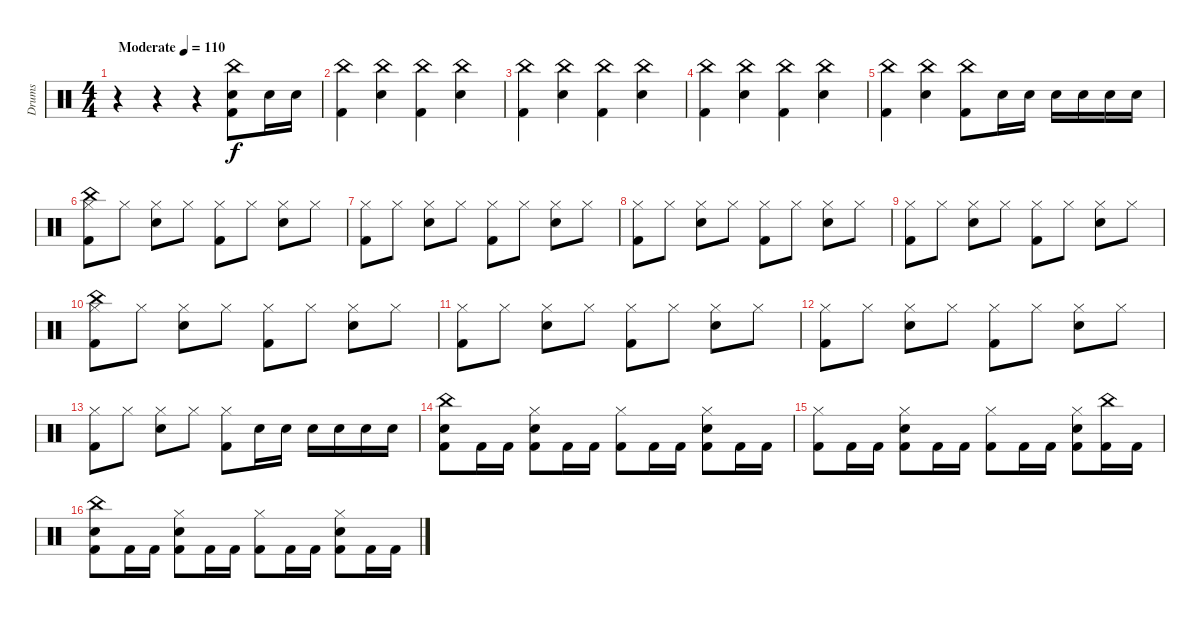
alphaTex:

\track ("Drums" "Drums") {instrument percussion}
\staff {score}
\articulation defaults
\ts (4 4)
\tempo (110 "Moderate")
\clef neutral
\ks c
r.4{dy f} r.4 r.4 ("China (hit)" "Snare (hit) 2" "Kick (hit) 2").8 "Snare (hit) 2".16 "Snare (hit) 2".16 |
("China (hit)" "Kick (hit) 2").4 ("China (hit)" "Snare (hit) 2").4 ("China (hit)" "Kick (hit) 2").4 ("China (hit)" "Snare (hit) 2").4 |
("China (hit)" "Kick (hit) 2").4 ("China (hit)" "Snare (hit) 2").4 ("China (hit)" "Kick (hit) 2").4 ("China (hit)" "Snare (hit) 2").4 |
("China (hit)" "Kick (hit) 2").4 ("China (hit)" "Snare (hit) 2").4 ("China (hit)" "Kick (hit) 2").4 ("China (hit)" "Snare (hit) 2").4 |
("China (hit)" "Kick (hit) 2").4 ("China (hit)" "Snare (hit) 2").4 ("China (hit)" "Kick (hit) 2").8 "Snare (hit) 2".16 "Snare (hit) 2".16 "Snare (hit) 2".16 "Snare (hit) 2".16 "Snare (hit) 2".16 "Snare (hit) 2".16 |
("China (hit)" "Hi-Hat (closed)" "Kick (hit) 2").8 "Hi-Hat (closed)".8 ("Hi-Hat (closed)" "Snare (hit) 2").8 "Hi-Hat (closed)".8 ("Hi-Hat (closed)" "Kick (hit) 2").8 "Hi-Hat (closed)".8 ("Hi-Hat (closed)" "Snare (hit) 2").8 "Hi-Hat (closed)".8 |
("Hi-Hat (closed)" "Kick (hit) 2").8 "Hi-Hat (closed)".8 ("Hi-Hat (closed)" "Snare (hit) 2").8 "Hi-Hat (closed)".8 ("Hi-Hat (closed)" "Kick (hit) 2").8 "Hi-Hat (closed)".8 ("Hi-Hat (closed)" "Snare (hit) 2").8 "Hi-Hat (closed)".8 |
("Hi-Hat (closed)" "Kick (hit) 2").8 "Hi-Hat (closed)".8 ("Hi-Hat (closed)" "Snare (hit) 2").8 "Hi-Hat (closed)".8 ("Hi-Hat (closed)" "Kick (hit) 2").8 "Hi-Hat (closed)".8 ("Hi-Hat (closed)" "Snare (hit) 2").8 "Hi-Hat (closed)".8 |
("Hi-Hat (closed)" "Kick (hit) 2").8 "Hi-Hat (closed)".8 ("Hi-Hat (closed)" "Snare (hit) 2").8 "Hi-Hat (closed)".8 ("Hi-Hat (closed)" "Kick (hit) 2").8 "Hi-Hat (closed)".8 ("Hi-Hat (closed)" "Snare (hit) 2").8 "Hi-Hat (closed)".8 |
("China (hit)" "Hi-Hat (closed)" "Kick (hit) 2").8 "Hi-Hat (closed)".8 ("Hi-Hat (closed)" "Snare (hit) 2").8 "Hi-Hat (closed)".8 ("Hi-Hat (closed)" "Kick (hit) 2").8 "Hi-Hat (closed)".8 ("Hi-Hat (closed)" "Snare (hit) 2").8 "Hi-Hat (closed)".8 |
("Hi-Hat (closed)" "Kick (hit) 2").8 "Hi-Hat (closed)".8 ("Hi-Hat (closed)" "Snare (hit) 2").8 "Hi-Hat (closed)".8 ("Hi-Hat (closed)" "Kick (hit) 2").8 "Hi-Hat (closed)".8 ("Hi-Hat (closed)" "Snare (hit) 2").8 "Hi-Hat (closed)".8 |
("Hi-Hat (closed)" "Kick (hit) 2").8 "Hi-Hat (closed)".8 ("Hi-Hat (closed)" "Snare (hit) 2").8 "Hi-Hat (closed)".8 ("Hi-Hat (closed)" "Kick (hit) 2").8 "Hi-Hat (closed)".8 ("Hi-Hat (closed)" "Snare (hit) 2").8 "Hi-Hat (closed)".8 |
("Hi-Hat (closed)" "Kick (hit) 2").8 "Hi-Hat (closed)".8 ("Hi-Hat (closed)" "Snare (hit) 2").8 "Hi-Hat (closed)".8 ("Hi-Hat (closed)" "Kick (hit) 2").8 "Snare (hit) 2".16 "Snare (hit) 2".16 "Snare (hit) 2".16 "Snare (hit) 2".16 "Snare (hit) 2".16 "Snare (hit) 2".16 |
("China (hit)" "Snare (hit) 2" "Kick (hit) 2").8 "Kick (hit) 2".16 "Kick (hit) 2".16 ("Hi-Hat (closed)" "Snare (hit) 2" "Kick (hit) 2").8 "Kick (hit) 2".16 "Kick (hit) 2".16 ("Hi-Hat (closed)" "Kick (hit) 2").8 "Kick (hit) 2".16 "Kick (hit) 2".16 ("Hi-Hat (closed)" "Snare (hit) 2" "Kick (hit) 2").8 "Kick (hit) 2".16 "Kick (hit) 2".16 |
("Hi-Hat (closed)" "Kick (hit) 2").8 "Kick (hit) 2".16 "Kick (hit) 2".16 ("Hi-Hat (closed)" "Snare (hit) 2" "Kick (hit) 2").8 "Kick (hit) 2".16 "Kick (hit) 2".16 ("Hi-Hat (closed)" "Kick (hit) 2").8 "Kick (hit) 2".16 "Kick (hit) 2".16 ("Hi-Hat (closed)" "Snare (hit) 2" "Kick (hit) 2").8 ("China (hit)" "Kick (hit) 2").16 "Kick (hit) 2".16 |
("China (hit)" "Snare (hit) 2" "Kick (hit) 2").8 "Kick (hit) 2".16 "Kick (hit) 2".16 ("Hi-Hat (closed)" "Snare (hit) 2" "Kick (hit) 2").8 "Kick (hit) 2".16 "Kick (hit) 2".16 ("Hi-Hat (closed)" "Kick (hit) 2").8 "Kick (hit) 2".16 "Kick (hit) 2".16 ("Hi-Hat (closed)" "Snare (hit) 2" "Kick (hit) 2").8 "Kick (hit) 2".16 "Kick (hit) 2".16
